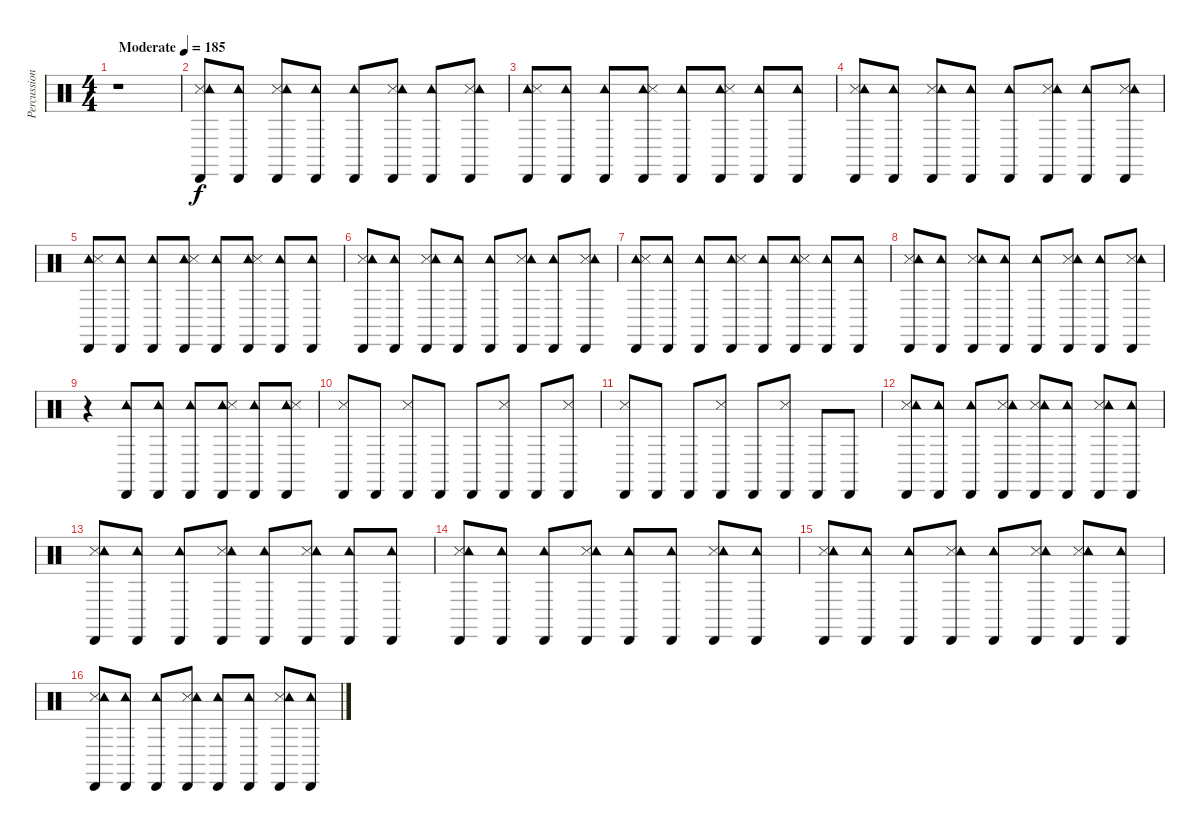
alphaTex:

\track ("Percussion" "Percussion") {instrument percussion}
\staff {score}
\articulation defaults
\ts (4 4)
\tempo (185 "Moderate")
\clef neutral
\ks c
r.1{dy f} |
("Cabasa (hit)" "Snare (side stick) 3" "Tambourine (hit)").8 ("Cabasa (hit)" "Tambourine (hit)").8 ("Cabasa (hit)" "Snare (side stick) 3" "Tambourine (hit)").8 ("Cabasa (hit)" "Tambourine (hit)").8 ("Cabasa (hit)" "Tambourine (hit)").8 ("Cabasa (hit)" "Snare (side stick) 3" "Tambourine (hit)").8 ("Cabasa (hit)" "Tambourine (hit)").8 ("Cabasa (hit)" "Snare (side stick) 3" "Tambourine (hit)").8 |
("Cabasa (hit)" "Tambourine (hit)" "Snare (side stick) 3").8 ("Cabasa (hit)" "Tambourine (hit)").8 ("Cabasa (hit)" "Tambourine (hit)").8 ("Cabasa (hit)" "Tambourine (hit)" "Snare (side stick) 3").8 ("Cabasa (hit)" "Tambourine (hit)").8 ("Cabasa (hit)" "Tambourine (hit)" "Snare (side stick) 3").8 ("Cabasa (hit)" "Tambourine (hit)").8 ("Cabasa (hit)" "Tambourine (hit)").8 |
("Cabasa (hit)" "Snare (side stick) 3" "Tambourine (hit)").8 ("Cabasa (hit)" "Tambourine (hit)").8 ("Cabasa (hit)" "Snare (side stick) 3" "Tambourine (hit)").8 ("Cabasa (hit)" "Tambourine (hit)").8 ("Cabasa (hit)" "Tambourine (hit)").8 ("Cabasa (hit)" "Snare (side stick) 3" "Tambourine (hit)").8 ("Cabasa (hit)" "Tambourine (hit)").8 ("Cabasa (hit)" "Snare (side stick) 3" "Tambourine (hit)").8 |
("Cabasa (hit)" "Tambourine (hit)" "Snare (side stick) 3").8 ("Cabasa (hit)" "Tambourine (hit)").8 ("Cabasa (hit)" "Tambourine (hit)").8 ("Cabasa (hit)" "Tambourine (hit)" "Snare (side stick) 3").8 ("Cabasa (hit)" "Tambourine (hit)").8 ("Cabasa (hit)" "Tambourine (hit)" "Snare (side stick) 3").8 ("Cabasa (hit)" "Tambourine (hit)").8 ("Cabasa (hit)" "Tambourine (hit)").8 |
("Cabasa (hit)" "Snare (side stick) 3" "Tambourine (hit)").8 ("Cabasa (hit)" "Tambourine (hit)").8 ("Cabasa (hit)" "Snare (side stick) 3" "Tambourine (hit)").8 ("Cabasa (hit)" "Tambourine (hit)").8 ("Cabasa (hit)" "Tambourine (hit)").8 ("Cabasa (hit)" "Snare (side stick) 3" "Tambourine (hit)").8 ("Cabasa (hit)" "Tambourine (hit)").8 ("Cabasa (hit)" "Snare (side stick) 3" "Tambourine (hit)").8 |
("Cabasa (hit)" "Tambourine (hit)" "Snare (side stick) 3").8 ("Cabasa (hit)" "Tambourine (hit)").8 ("Cabasa (hit)" "Tambourine (hit)").8 ("Cabasa (hit)" "Tambourine (hit)" "Snare (side stick) 3").8 ("Cabasa (hit)" "Tambourine (hit)").8 ("Cabasa (hit)" "Tambourine (hit)" "Snare (side stick) 3").8 ("Cabasa (hit)" "Tambourine (hit)").8 ("Cabasa (hit)" "Tambourine (hit)").8 |
("Snare (side stick) 3" "Tambourine (hit)" "Cabasa (hit)").8 ("Tambourine (hit)" "Cabasa (hit)").8 ("Snare (side stick) 3" "Tambourine (hit)" "Cabasa (hit)").8 ("Tambourine (hit)" "Cabasa (hit)").8 ("Tambourine (hit)" "Cabasa (hit)").8 ("Snare (side stick) 3" "Tambourine (hit)" "Cabasa (hit)").8 ("Cabasa (hit)" "Tambourine (hit)").8 ("Snare (side stick) 3" "Tambourine (hit)" "Cabasa (hit)").8 |
r.4 ("Tambourine (hit)" "Cabasa (hit)").8 ("Tambourine (hit)" "Cabasa (hit)").8 ("Tambourine (hit)" "Cabasa (hit)").8 ("Tambourine (hit)" "Cabasa (hit)" "Snare (side stick) 3").8 ("Tambourine (hit)" "Cabasa (hit)").8 ("Tambourine (hit)" "Cabasa (hit)" "Snare (side stick) 3").8 |
("Cabasa (hit)" "Snare (side stick) 3").8 "Cabasa (hit)".8 ("Cabasa (hit)" "Snare (side stick) 3").8 "Cabasa (hit)".8 "Cabasa (hit)".8 ("Cabasa (hit)" "Snare (side stick) 3").8 "Cabasa (hit)".8 ("Cabasa (hit)" "Snare (side stick) 3").8 |
("Cabasa (hit)" "Snare (side stick) 3").8 "Cabasa (hit)".8 "Cabasa (hit)".8 ("Cabasa (hit)" "Snare (side stick) 3").8 "Cabasa (hit)".8 ("Cabasa (hit)" "Snare (side stick) 3").8 "Cabasa (hit)".8 "Cabasa (hit)".8 |
("Cabasa (hit)" "Snare (side stick) 3" "Tambourine (hit)").8 ("Cabasa (hit)" "Tambourine (hit)").8 ("Cabasa (hit)" "Tambourine (hit)").8 ("Cabasa (hit)" "Snare (side stick) 3" "Tambourine (hit)").8 ("Cabasa (hit)" "Snare (side stick) 3" "Tambourine (hit)").8 ("Cabasa (hit)" "Tambourine (hit)").8 ("Cabasa (hit)" "Snare (side stick) 3" "Tambourine (hit)").8 ("Cabasa (hit)" "Tambourine (hit)").8 |
("Snare (side stick) 3" "Cabasa (hit)" "Tambourine (hit)").8 ("Cabasa (hit)" "Tambourine (hit)").8 ("Cabasa (hit)" "Tambourine (hit)").8 ("Snare (side stick) 3" "Cabasa (hit)" "Tambourine (hit)").8 ("Cabasa (hit)" "Tambourine (hit)").8 ("Snare (side stick) 3" "Cabasa (hit)" "Tambourine (hit)").8 ("Cabasa (hit)" "Tambourine (hit)").8 ("Cabasa (hit)" "Tambourine (hit)").8 |
("Snare (side stick) 3" "Cabasa (hit)" "Tambourine (hit)").8 ("Cabasa (hit)" "Tambourine (hit)").8 ("Cabasa (hit)" "Tambourine (hit)").8 ("Snare (side stick) 3" "Cabasa (hit)" "Tambourine (hit)").8 ("Cabasa (hit)" "Tambourine (hit)").8 ("Cabasa (hit)" "Tambourine (hit)").8 ("Snare (side stick) 3" "Cabasa (hit)" "Tambourine (hit)").8 ("Cabasa (hit)" "Tambourine (hit)").8 |
("Snare (side stick) 3" "Cabasa (hit)" "Tambourine (hit)").8 ("Cabasa (hit)" "Tambourine (hit)").8 ("Cabasa (hit)" "Tambourine (hit)").8 ("Snare (side stick) 3" "Cabasa (hit)" "Tambourine (hit)").8 ("Cabasa (hit)" "Tambourine (hit)").8 ("Snare (side stick) 3" "Cabasa (hit)" "Tambourine (hit)").8 ("Snare (side stick) 3" "Cabasa (hit)" "Tambourine (hit)").8 ("Cabasa (hit)" "Tambourine (hit)").8 |
("Snare (side stick) 3" "Cabasa (hit)" "Tambourine (hit)").8 ("Cabasa (hit)" "Tambourine (hit)").8 ("Cabasa (hit)" "Tambourine (hit)").8 ("Snare (side stick) 3" "Cabasa (hit)" "Tambourine (hit)").8 ("Cabasa (hit)" "Tambourine (hit)").8 ("Cabasa (hit)" "Tambourine (hit)").8 ("Snare (side stick) 3" "Cabasa (hit)" "Tambourine (hit)").8 ("Cabasa (hit)" "Tambourine (hit)").8
